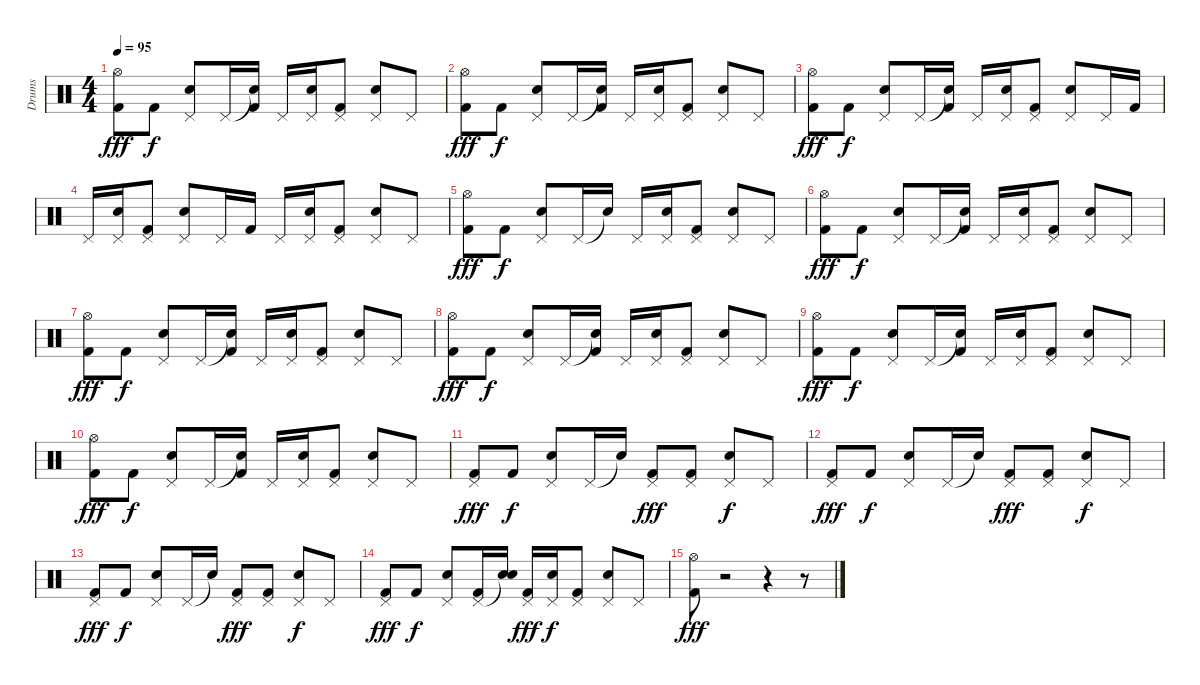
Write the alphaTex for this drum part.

\track ("Drums" "Drums") {instrument percussion}
\staff {score}
\articulation defaults
\ts (4 4)
\tempo 95
\clef neutral
\ks c
("Hi-Hat (open)" "Kick (hit) 2").8{dy fff} "Kick (hit) 2".8{dy f} ("Pedal Hi-Hat (hit)" "Snare (hit) 2").8 "Pedal Hi-Hat (hit)".16 ("Snare (hit)"{t} "Kick (hit) 2").16 "Pedal Hi-Hat (hit)".16 ("Pedal Hi-Hat (hit)" "Snare (hit) 2").16 ("Pedal Hi-Hat (hit)" "Kick (hit) 2").8 ("Pedal Hi-Hat (hit)" "Snare (hit) 2").8 "Pedal Hi-Hat (hit)".8 |
("Hi-Hat (open)" "Kick (hit) 2").8{dy fff} "Kick (hit) 2".8{dy f} ("Pedal Hi-Hat (hit)" "Snare (hit) 2").8 "Pedal Hi-Hat (hit)".16 ("Snare (hit)"{t} "Kick (hit) 2").16 "Pedal Hi-Hat (hit)".16 ("Pedal Hi-Hat (hit)" "Snare (hit) 2").16 ("Pedal Hi-Hat (hit)" "Kick (hit) 2").8 ("Pedal Hi-Hat (hit)" "Snare (hit) 2").8 "Pedal Hi-Hat (hit)".8 |
("Hi-Hat (open)" "Kick (hit) 2").8{dy fff} "Kick (hit) 2".8{dy f} ("Pedal Hi-Hat (hit)" "Snare (hit) 2").8 "Pedal Hi-Hat (hit)".16 ("Snare (hit)"{t} "Kick (hit) 2").16 "Pedal Hi-Hat (hit)".16 ("Pedal Hi-Hat (hit)" "Snare (hit) 2").16 ("Pedal Hi-Hat (hit)" "Kick (hit) 2").8 ("Pedal Hi-Hat (hit)" "Snare (hit) 2").8 "Pedal Hi-Hat (hit)".16 "Kick (hit) 2".16 |
"Pedal Hi-Hat (hit)".16 ("Pedal Hi-Hat (hit)" "Snare (hit) 2").16 ("Pedal Hi-Hat (hit)" "Kick (hit) 2").8 ("Pedal Hi-Hat (hit)" "Snare (hit) 2").8 "Pedal Hi-Hat (hit)".16 "Kick (hit) 2".16 "Pedal Hi-Hat (hit)".16 ("Pedal Hi-Hat (hit)" "Snare (hit) 2").16 ("Pedal Hi-Hat (hit)" "Kick (hit) 2").8 ("Pedal Hi-Hat (hit)" "Snare (hit) 2").8 "Pedal Hi-Hat (hit)".8 |
("Hi-Hat (open)" "Kick (hit) 2").8{dy fff} "Kick (hit) 2".8{dy f} ("Pedal Hi-Hat (hit)" "Snare (hit) 2").8 "Pedal Hi-Hat (hit)".16 "Snare (hit)"{t}.16 "Pedal Hi-Hat (hit)".16 ("Pedal Hi-Hat (hit)" "Snare (hit) 2").16 ("Pedal Hi-Hat (hit)" "Kick (hit) 2").8 ("Pedal Hi-Hat (hit)" "Snare (hit) 2").8 "Pedal Hi-Hat (hit)".8 |
("Hi-Hat (open)" "Kick (hit) 2").8{dy fff} "Kick (hit) 2".8{dy f} ("Pedal Hi-Hat (hit)" "Snare (hit) 2").8 "Pedal Hi-Hat (hit)".16 ("Snare (hit)"{t} "Kick (hit) 2").16 "Pedal Hi-Hat (hit)".16 ("Pedal Hi-Hat (hit)" "Snare (hit) 2").16 ("Pedal Hi-Hat (hit)" "Kick (hit) 2").8 ("Pedal Hi-Hat (hit)" "Snare (hit) 2").8 "Pedal Hi-Hat (hit)".8 |
("Hi-Hat (open)" "Kick (hit) 2").8{dy fff} "Kick (hit) 2".8{dy f} ("Pedal Hi-Hat (hit)" "Snare (hit) 2").8 "Pedal Hi-Hat (hit)".16 ("Snare (hit)"{t} "Kick (hit) 2").16 "Pedal Hi-Hat (hit)".16 ("Pedal Hi-Hat (hit)" "Snare (hit) 2").16 ("Pedal Hi-Hat (hit)" "Kick (hit) 2").8 ("Pedal Hi-Hat (hit)" "Snare (hit) 2").8 "Pedal Hi-Hat (hit)".8 |
("Hi-Hat (open)" "Kick (hit) 2").8{dy fff} "Kick (hit) 2".8{dy f} ("Pedal Hi-Hat (hit)" "Snare (hit) 2").8 "Pedal Hi-Hat (hit)".16 ("Snare (hit)"{t} "Kick (hit) 2").16 "Pedal Hi-Hat (hit)".16 ("Pedal Hi-Hat (hit)" "Snare (hit) 2").16 ("Pedal Hi-Hat (hit)" "Kick (hit) 2").8 ("Pedal Hi-Hat (hit)" "Snare (hit) 2").8 "Pedal Hi-Hat (hit)".8 |
("Hi-Hat (open)" "Kick (hit) 2").8{dy fff} "Kick (hit) 2".8{dy f} ("Pedal Hi-Hat (hit)" "Snare (hit) 2").8 "Pedal Hi-Hat (hit)".16 ("Snare (hit)"{t} "Kick (hit) 2").16 "Pedal Hi-Hat (hit)".16 ("Pedal Hi-Hat (hit)" "Snare (hit) 2").16 ("Pedal Hi-Hat (hit)" "Kick (hit) 2").8 ("Pedal Hi-Hat (hit)" "Snare (hit) 2").8 "Pedal Hi-Hat (hit)".8 |
("Hi-Hat (open)" "Kick (hit) 2").8{dy fff} "Kick (hit) 2".8{dy f} ("Pedal Hi-Hat (hit)" "Snare (hit) 2").8 "Pedal Hi-Hat (hit)".16 ("Snare (hit)"{t} "Kick (hit) 2").16 "Pedal Hi-Hat (hit)".16 ("Pedal Hi-Hat (hit)" "Snare (hit) 2").16 ("Pedal Hi-Hat (hit)" "Kick (hit) 2").8 ("Pedal Hi-Hat (hit)" "Snare (hit) 2").8 "Pedal Hi-Hat (hit)".8 |
("Pedal Hi-Hat (hit)" "Kick (hit) 2").8{dy fff} "Kick (hit) 2".8{dy f} ("Pedal Hi-Hat (hit)" "Snare (hit) 2").8 "Pedal Hi-Hat (hit)".16 "Snare (hit)"{t}.16 ("Pedal Hi-Hat (hit)" "Kick (hit) 2").8{dy fff} ("Pedal Hi-Hat (hit)" "Kick (hit) 2").8 ("Pedal Hi-Hat (hit)" "Snare (hit) 2").8{dy f} "Pedal Hi-Hat (hit)".8 |
("Pedal Hi-Hat (hit)" "Kick (hit) 2").8{dy fff} "Kick (hit) 2".8{dy f} ("Pedal Hi-Hat (hit)" "Snare (hit) 2").8 "Pedal Hi-Hat (hit)".16 "Snare (hit)"{t}.16 ("Pedal Hi-Hat (hit)" "Kick (hit) 2").8{dy fff} ("Pedal Hi-Hat (hit)" "Kick (hit) 2").8 ("Pedal Hi-Hat (hit)" "Snare (hit) 2").8{dy f} "Pedal Hi-Hat (hit)".8 |
("Pedal Hi-Hat (hit)" "Kick (hit) 2").8{dy fff} "Kick (hit) 2".8{dy f} ("Pedal Hi-Hat (hit)" "Snare (hit) 2").8 "Pedal Hi-Hat (hit)".16 "Snare (hit)"{t}.16 ("Pedal Hi-Hat (hit)" "Kick (hit) 2").8{dy fff} ("Pedal Hi-Hat (hit)" "Kick (hit) 2").8 ("Pedal Hi-Hat (hit)" "Snare (hit) 2").8{dy f} "Pedal Hi-Hat (hit)".8 |
("Pedal Hi-Hat (hit)" "Kick (hit) 2").8{dy fff} "Kick (hit) 2".8{dy f} ("Pedal Hi-Hat (hit)" "Snare (hit) 2").8 ("Pedal Hi-Hat (hit)" "Kick (hit) 2").16 ("Snare (hit)"{t} "Snare (hit) 2").16 ("Pedal Hi-Hat (hit)" "Kick (hit) 2").16{dy fff} ("Pedal Hi-Hat (hit)" "Snare (hit) 2").16{dy f} ("Pedal Hi-Hat (hit)" "Kick (hit) 2").8 ("Pedal Hi-Hat (hit)" "Snare (hit) 2").8 "Pedal Hi-Hat (hit)".8 |
("Hi-Hat (open)" "Kick (hit) 2").8{dy fff} r.2 r.4 r.8
